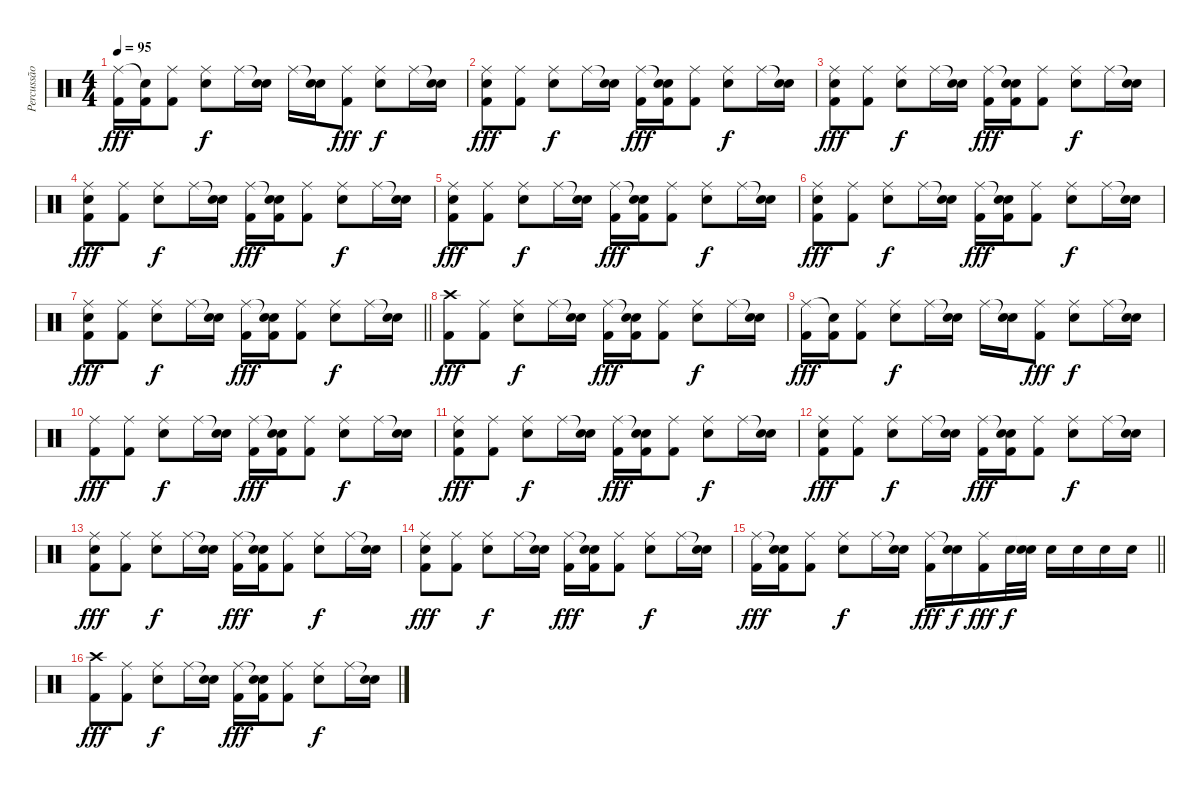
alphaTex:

\track ("Percussão" "Percussão") {instrument percussion}
\staff {score}
\articulation defaults
\ts (4 4)
\tempo 95
\clef neutral
\ks c
("Ride (middle)" "Kick (hit) 2").16{dy fff} ("Snare (hit)"{t} "Kick (hit) 2").16 ("Ride (middle)" "Kick (hit) 2").8 ("Ride (middle)" "Snare (hit) 2").8{dy f} "Ride (middle)".16 ("Snare (hit)"{t} "Snare (hit) 2").16 "Ride (middle)".16 ("Snare (hit)"{t} "Snare (hit) 2").16 ("Ride (middle)" "Kick (hit) 2").8{dy fff} ("Ride (middle)" "Snare (hit) 2").8{dy f} "Ride (middle)".16 ("Snare (hit)"{t} "Snare (hit) 2").16 |
("Ride (middle)" "Snare (hit) 2" "Kick (hit) 2").8{dy fff} ("Ride (middle)" "Kick (hit) 2").8 ("Ride (middle)" "Snare (hit) 2").8{dy f} "Ride (middle)".16 ("Snare (hit)"{t} "Snare (hit) 2").16 ("Ride (middle)" "Kick (hit) 2").16{dy fff} ("Snare (hit)"{t} "Snare (hit) 2" "Kick (hit) 2").16 ("Ride (middle)" "Kick (hit) 2").8 ("Ride (middle)" "Snare (hit) 2").8{dy f} "Ride (middle)".16 ("Snare (hit)"{t} "Snare (hit) 2").16 |
("Ride (middle)" "Snare (hit) 2" "Kick (hit) 2").8{dy fff} ("Ride (middle)" "Kick (hit) 2").8 ("Ride (middle)" "Snare (hit) 2").8{dy f} "Ride (middle)".16 ("Snare (hit)"{t} "Snare (hit) 2").16 ("Ride (middle)" "Kick (hit) 2").16{dy fff} ("Snare (hit)"{t} "Snare (hit) 2" "Kick (hit) 2").16 ("Ride (middle)" "Kick (hit) 2").8 ("Ride (middle)" "Snare (hit) 2").8{dy f} "Ride (middle)".16 ("Snare (hit)"{t} "Snare (hit) 2").16 |
("Ride (middle)" "Snare (hit) 2" "Kick (hit) 2").8{dy fff} ("Ride (middle)" "Kick (hit) 2").8 ("Ride (middle)" "Snare (hit) 2").8{dy f} "Ride (middle)".16 ("Snare (hit)"{t} "Snare (hit) 2").16 ("Ride (middle)" "Kick (hit) 2").16{dy fff} ("Snare (hit)"{t} "Snare (hit) 2" "Kick (hit) 2").16 ("Ride (middle)" "Kick (hit) 2").8 ("Ride (middle)" "Snare (hit) 2").8{dy f} "Ride (middle)".16 ("Snare (hit)"{t} "Snare (hit) 2").16 |
("Ride (middle)" "Snare (hit) 2" "Kick (hit) 2").8{dy fff} ("Ride (middle)" "Kick (hit) 2").8 ("Ride (middle)" "Snare (hit) 2").8{dy f} "Ride (middle)".16 ("Snare (hit)"{t} "Snare (hit) 2").16 ("Ride (middle)" "Kick (hit) 2").16{dy fff} ("Snare (hit)"{t} "Snare (hit) 2" "Kick (hit) 2").16 ("Ride (middle)" "Kick (hit) 2").8 ("Ride (middle)" "Snare (hit) 2").8{dy f} "Ride (middle)".16 ("Snare (hit)"{t} "Snare (hit) 2").16 |
("Ride (middle)" "Snare (hit) 2" "Kick (hit) 2").8{dy fff} ("Ride (middle)" "Kick (hit) 2").8 ("Ride (middle)" "Snare (hit) 2").8{dy f} "Ride (middle)".16 ("Snare (hit)"{t} "Snare (hit) 2").16 ("Ride (middle)" "Kick (hit) 2").16{dy fff} ("Snare (hit)"{t} "Snare (hit) 2" "Kick (hit) 2").16 ("Ride (middle)" "Kick (hit) 2").8 ("Ride (middle)" "Snare (hit) 2").8{dy f} "Ride (middle)".16 ("Snare (hit)"{t} "Snare (hit) 2").16 |
\barLineRight lightlight
("Ride (middle)" "Snare (hit) 2" "Kick (hit) 2").8{dy fff} ("Ride (middle)" "Kick (hit) 2").8 ("Ride (middle)" "Snare (hit) 2").8{dy f} "Ride (middle)".16 ("Snare (hit)"{t} "Snare (hit) 2").16 ("Ride (middle)" "Kick (hit) 2").16{dy fff} ("Snare (hit)"{t} "Snare (hit) 2" "Kick (hit) 2").16 ("Ride (middle)" "Kick (hit) 2").8 ("Ride (middle)" "Snare (hit) 2").8{dy f} "Ride (middle)".16 ("Snare (hit)"{t} "Snare (hit) 2").16 |
("Crash high (hit)" "Kick (hit) 2").8{dy fff} ("Ride (middle)" "Kick (hit) 2").8 ("Ride (middle)" "Snare (hit) 2").8{dy f} "Ride (middle)".16 ("Snare (hit)"{t} "Snare (hit) 2").16 ("Ride (middle)" "Kick (hit) 2").16{dy fff} ("Snare (hit)"{t} "Snare (hit) 2" "Kick (hit) 2").16 ("Ride (middle)" "Kick (hit) 2").8 ("Ride (middle)" "Snare (hit) 2").8{dy f} "Ride (middle)".16 ("Snare (hit)"{t} "Snare (hit) 2").16 |
("Ride (middle)" "Kick (hit) 2").16{dy fff} ("Snare (hit)"{t} "Kick (hit) 2").16 ("Ride (middle)" "Kick (hit) 2").8 ("Ride (middle)" "Snare (hit) 2").8{dy f} "Ride (middle)".16 ("Snare (hit)"{t} "Snare (hit) 2").16 "Ride (middle)".16 ("Snare (hit)"{t} "Snare (hit) 2").16 ("Ride (middle)" "Kick (hit) 2").8{dy fff} ("Ride (middle)" "Snare (hit) 2").8{dy f} "Ride (middle)".16 ("Snare (hit)"{t} "Snare (hit) 2").16 |
("Ride (middle)" "Kick (hit) 2").8{dy fff} ("Ride (middle)" "Kick (hit) 2").8 ("Ride (middle)" "Snare (hit) 2").8{dy f} "Ride (middle)".16 ("Snare (hit)"{t} "Snare (hit) 2").16 ("Ride (middle)" "Kick (hit) 2").16{dy fff} ("Snare (hit)"{t} "Snare (hit) 2" "Kick (hit) 2").16 ("Ride (middle)" "Kick (hit) 2").8 ("Ride (middle)" "Snare (hit) 2").8{dy f} "Ride (middle)".16 ("Snare (hit)"{t} "Snare (hit) 2").16 |
("Ride (middle)" "Snare (hit) 2" "Kick (hit) 2").8{dy fff} ("Ride (middle)" "Kick (hit) 2").8 ("Ride (middle)" "Snare (hit) 2").8{dy f} "Ride (middle)".16 ("Snare (hit)"{t} "Snare (hit) 2").16 ("Ride (middle)" "Kick (hit) 2").16{dy fff} ("Snare (hit)"{t} "Snare (hit) 2" "Kick (hit) 2").16 ("Ride (middle)" "Kick (hit) 2").8 ("Ride (middle)" "Snare (hit) 2").8{dy f} "Ride (middle)".16 ("Snare (hit)"{t} "Snare (hit) 2").16 |
("Ride (middle)" "Snare (hit) 2" "Kick (hit) 2").8{dy fff} ("Ride (middle)" "Kick (hit) 2").8 ("Ride (middle)" "Snare (hit) 2").8{dy f} "Ride (middle)".16 ("Snare (hit)"{t} "Snare (hit) 2").16 ("Ride (middle)" "Kick (hit) 2").16{dy fff} ("Snare (hit)"{t} "Snare (hit) 2" "Kick (hit) 2").16 ("Ride (middle)" "Kick (hit) 2").8 ("Ride (middle)" "Snare (hit) 2").8{dy f} "Ride (middle)".16 ("Snare (hit)"{t} "Snare (hit) 2").16 |
("Ride (middle)" "Snare (hit) 2" "Kick (hit) 2").8{dy fff} ("Ride (middle)" "Kick (hit) 2").8 ("Ride (middle)" "Snare (hit) 2").8{dy f} "Ride (middle)".16 ("Snare (hit)"{t} "Snare (hit) 2").16 ("Ride (middle)" "Kick (hit) 2").16{dy fff} ("Snare (hit)"{t} "Snare (hit) 2" "Kick (hit) 2").16 ("Ride (middle)" "Kick (hit) 2").8 ("Ride (middle)" "Snare (hit) 2").8{dy f} "Ride (middle)".16 ("Snare (hit)"{t} "Snare (hit) 2").16 |
("Ride (middle)" "Snare (hit) 2" "Kick (hit) 2").8{dy fff} ("Ride (middle)" "Kick (hit) 2").8 ("Ride (middle)" "Snare (hit) 2").8{dy f} "Ride (middle)".16 ("Snare (hit)"{t} "Snare (hit) 2").16 ("Ride (middle)" "Kick (hit) 2").16{dy fff} ("Snare (hit)"{t} "Snare (hit) 2" "Kick (hit) 2").16 ("Ride (middle)" "Kick (hit) 2").8 ("Ride (middle)" "Snare (hit) 2").8{dy f} "Ride (middle)".16 ("Snare (hit)"{t} "Snare (hit) 2").16 |
\barLineRight lightlight
("Ride (middle)" "Kick (hit) 2").16{dy fff} ("Snare (hit)"{t} "Snare (hit) 2" "Kick (hit) 2").16 ("Ride (middle)" "Kick (hit) 2").8 ("Ride (middle)" "Snare (hit) 2").8{dy f} "Ride (middle)".16 ("Snare (hit)"{t} "Snare (hit) 2").16 ("Ride (middle)" "Kick (hit) 2").16{dy fff} ("Snare (hit)"{t} "Snare (hit) 2").16{dy f} ("Ride (middle)" "Kick (hit) 2").16{dy fff} "Snare (hit) 2".32{dy f} ("Snare (hit)"{t} "Snare (hit) 2").32 "Snare (hit) 2".16 "Snare (hit) 2".16 "Snare (hit) 2".16 "Snare (hit) 2".16 |
("Crash high (hit)" "Kick (hit) 2").8{dy fff} ("Ride (middle)" "Kick (hit) 2").8 ("Ride (middle)" "Snare (hit) 2").8{dy f} "Ride (middle)".16 ("Snare (hit)"{t} "Snare (hit) 2").16 ("Ride (middle)" "Kick (hit) 2").16{dy fff} ("Snare (hit)"{t} "Snare (hit) 2" "Kick (hit) 2").16 ("Ride (middle)" "Kick (hit) 2").8 ("Ride (middle)" "Snare (hit) 2").8{dy f} "Ride (middle)".16 ("Snare (hit)"{t} "Snare (hit) 2").16
